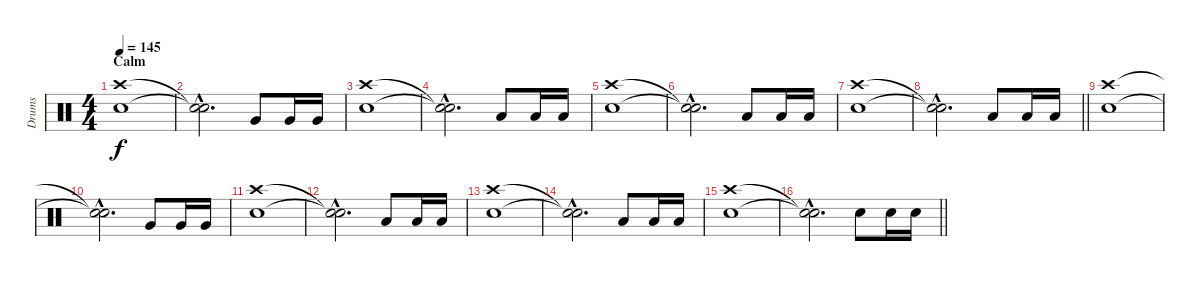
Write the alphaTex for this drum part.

\track ("Drums" "Drums") {instrument percussion}
\staff {score}
\articulation defaults
\ts (4 4)
\section ("" "Calm")
\tempo 145
\clef neutral
\ks c
("Crash high (hit)" "Snare (hit) 2").1{dy f} |
("Snare (hit)"{hac t} "Snare (hit)"{hac t}).2{d} "Very Low Tom (hit)".8 "Very Low Tom (hit)".16 "Very Low Tom (hit)".16 |
("Crash high (hit)" "Snare (hit) 2").1 |
("Snare (hit)"{hac t} "Snare (hit)"{hac t}).2{d} "Low Tom (hit)".8 "Low Tom (hit)".16 "Low Tom (hit)".16 |
("Crash high (hit)" "Snare (hit) 2").1 |
("Snare (hit)"{hac t} "Snare (hit)"{hac t}).2{d} "Low Floor Tom (hit)".8 "Low Floor Tom (hit)".16 "Low Floor Tom (hit)".16 |
("Crash high (hit)" "Snare (hit) 2").1 |
\barLineRight lightlight
("Snare (hit)"{hac t} "Snare (hit)"{hac t}).2{d} "Low Tom (hit)".8 "Low Tom (hit)".16 "Low Tom (hit)".16 |
("Crash high (hit)" "Snare (hit) 2").1 |
("Snare (hit)"{hac t} "Snare (hit)"{hac t}).2{d} "Very Low Tom (hit)".8 "Very Low Tom (hit)".16 "Very Low Tom (hit)".16 |
("Crash high (hit)" "Snare (hit) 2").1 |
("Snare (hit)"{hac t} "Snare (hit)"{hac t}).2{d} "Low Tom (hit)".8 "Low Tom (hit)".16 "Low Tom (hit)".16 |
("Crash high (hit)" "Snare (hit) 2").1 |
("Snare (hit)"{hac t} "Snare (hit)"{hac t}).2{d} "Low Floor Tom (hit)".8 "Low Floor Tom (hit)".16 "Low Floor Tom (hit)".16 |
("Crash high (hit)" "Snare (hit) 2").1 |
\barLineRight lightlight
("Snare (hit)"{hac t} "Snare (hit)"{hac t}).2{d} "Snare (hit) 2".8 "Snare (hit) 2".16 "Snare (hit) 2".16
